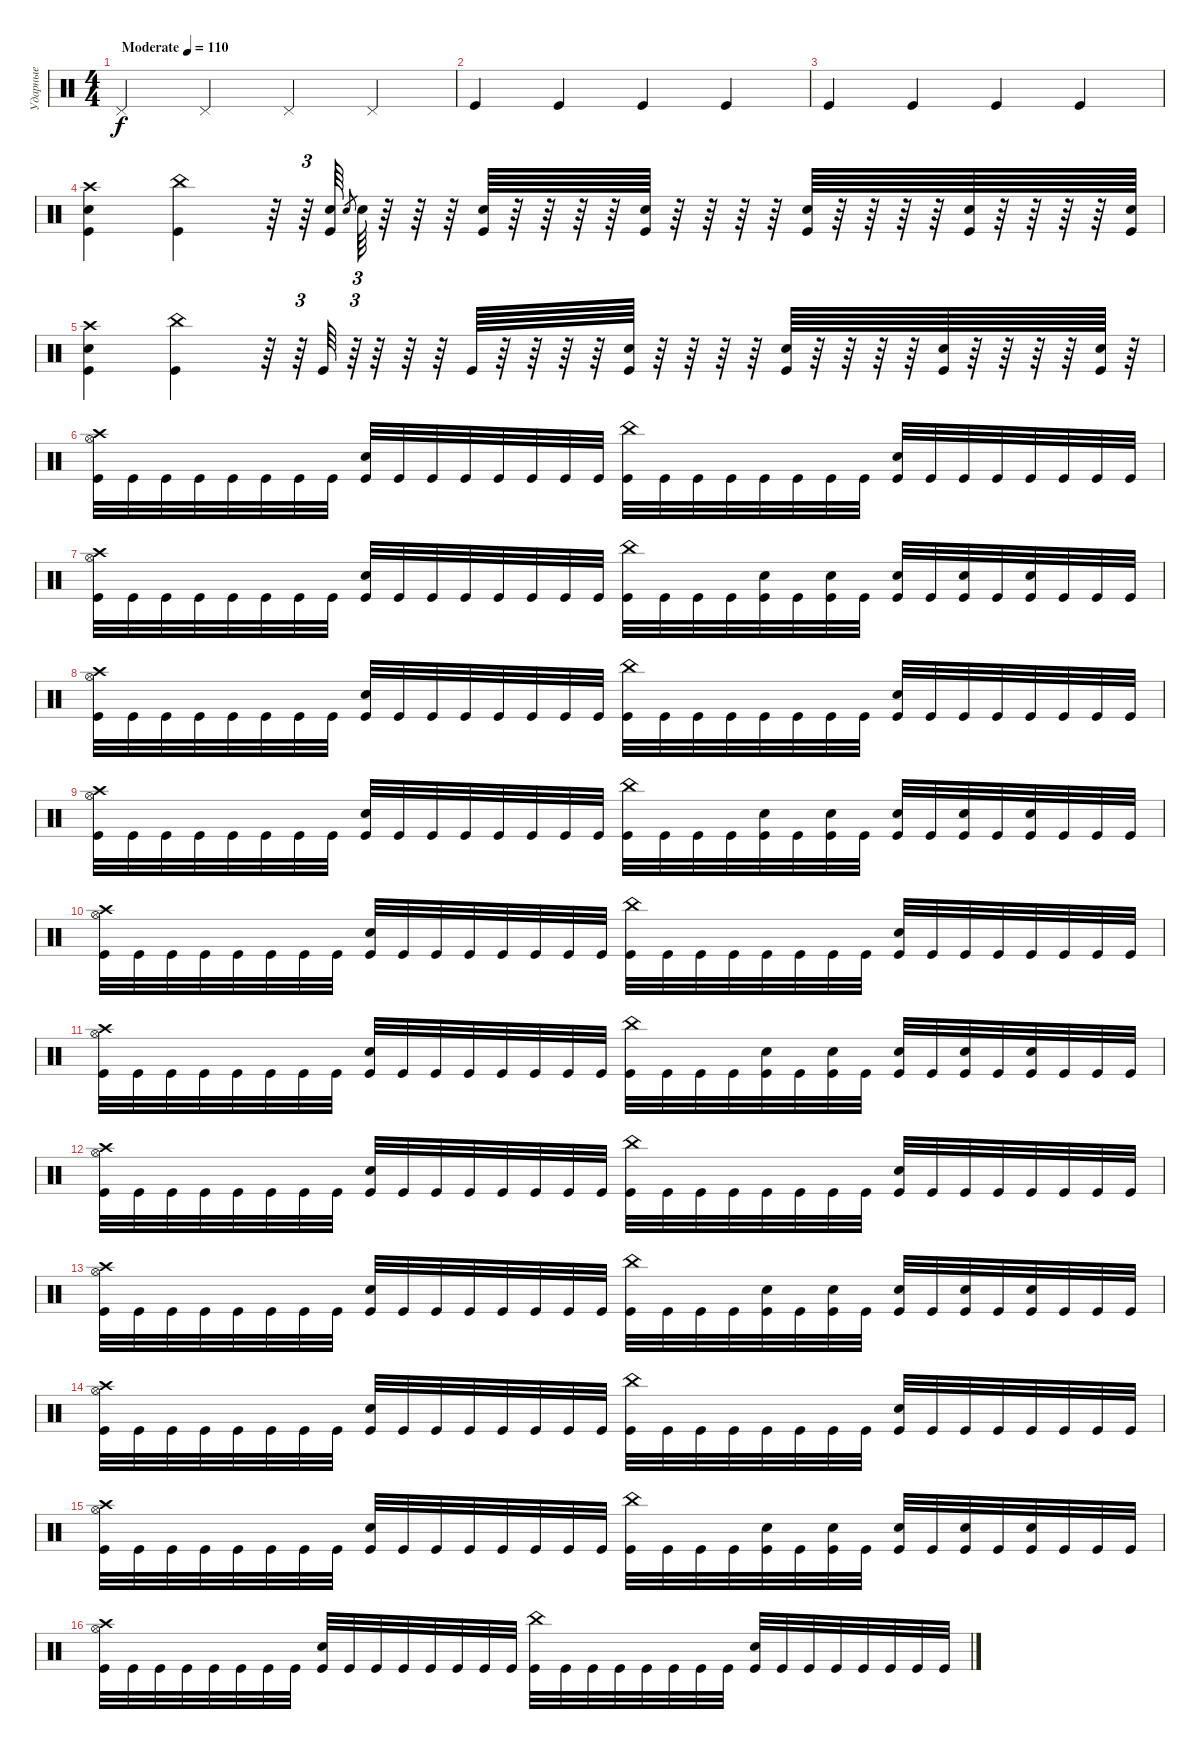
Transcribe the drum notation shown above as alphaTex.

\track ("Ударные" "Ударные") {instrument percussion}
\staff {score}
\articulation defaults
\ts (4 4)
\tempo (110 "Moderate")
\clef neutral
\ks c "Pedal Hi-Hat (hit)".4{dy f} "Pedal Hi-Hat (hit)".4 "Pedal Hi-Hat (hit)".4 "Pedal Hi-Hat (hit)".4
|
"Kick (hit)".4 "Kick (hit)".4 "Kick (hit)".4 "Kick (hit)".4 |
"Kick (hit)".4 "Kick (hit)".4 "Kick (hit)".4 "Kick (hit)".4 |
("Electric Snare (hit)" "Crash high (hit)" "Kick (hit)").4 ("China (hit)" "Kick (hit)").4 r.64 r.64{tu (3 2)} ("Electric Snare (hit)" "Kick (hit)").64 "Electric Snare (hit)".8{gr} "Electric Snare (hit)".64{tu (3 2)} r.64 r.64 r.64 ("Electric Snare (hit)" "Kick (hit)").64 r.64 r.64 r.64 r.64 ("Electric Snare (hit)" "Kick (hit)").64 r.64 r.64 r.64 r.64 ("Electric Snare (hit)" "Kick (hit)").64 r.64 r.64 r.64 r.64 ("Electric Snare (hit)" "Kick (hit)").64 r.64 r.64 r.64 r.64 ("Electric Snare (hit)" "Kick (hit)").64 |
("Electric Snare (hit)" "Crash high (hit)" "Kick (hit)").4 ("China (hit)" "Kick (hit)").4 r.64 r.64{tu (3 2)} "Kick (hit)".64 r.64{tu (3 2)} r.64 r.64 r.64 "Kick (hit)".64 r.64 r.64 r.64 r.64 ("Electric Snare (hit)" "Kick (hit)").64 r.64 r.64 r.64 r.64 ("Electric Snare (hit)" "Kick (hit)").64 r.64 r.64 r.64 r.64 ("Electric Snare (hit)" "Kick (hit)").64 r.64 r.64 r.64 r.64 ("Electric Snare (hit)" "Kick (hit)").64 r.64 |
("Hi-Hat (open)" "Crash high (hit)" "Kick (hit)").32 "Kick (hit)".32 "Kick (hit)".32 "Kick (hit)".32 "Kick (hit)".32 "Kick (hit)".32 "Kick (hit)".32 "Kick (hit)".32 ("Electric Snare (hit)" "Kick (hit)").32 "Kick (hit)".32 "Kick (hit)".32 "Kick (hit)".32 "Kick (hit)".32 "Kick (hit)".32 "Kick (hit)".32 "Kick (hit)".32 ("China (hit)" "Kick (hit)").32 "Kick (hit)".32 "Kick (hit)".32 "Kick (hit)".32 "Kick (hit)".32 "Kick (hit)".32 "Kick (hit)".32 "Kick (hit)".32 ("Electric Snare (hit)" "Kick (hit)").32 "Kick (hit)".32 "Kick (hit)".32 "Kick (hit)".32 "Kick (hit)".32 "Kick (hit)".32 "Kick (hit)".32 "Kick (hit)".32 |
("Hi-Hat (open)" "Crash high (hit)" "Kick (hit)").32 "Kick (hit)".32 "Kick (hit)".32 "Kick (hit)".32 "Kick (hit)".32 "Kick (hit)".32 "Kick (hit)".32 "Kick (hit)".32 ("Electric Snare (hit)" "Kick (hit)").32 "Kick (hit)".32 "Kick (hit)".32 "Kick (hit)".32 "Kick (hit)".32 "Kick (hit)".32 "Kick (hit)".32 "Kick (hit)".32 ("China (hit)" "Kick (hit)").32 "Kick (hit)".32 "Kick (hit)".32 "Kick (hit)".32 ("Electric Snare (hit)" "Kick (hit)").32 "Kick (hit)".32 ("Electric Snare (hit)" "Kick (hit)").32 "Kick (hit)".32 ("Electric Snare (hit)" "Kick (hit)").32 "Kick (hit)".32 ("Electric Snare (hit)" "Kick (hit)").32 "Kick (hit)".32 ("Electric Snare (hit)" "Kick (hit)").32 "Kick (hit)".32 "Kick (hit)".32 "Kick (hit)".32 |
("Hi-Hat (open)" "Crash high (hit)" "Kick (hit)").32 "Kick (hit)".32 "Kick (hit)".32 "Kick (hit)".32 "Kick (hit)".32 "Kick (hit)".32 "Kick (hit)".32 "Kick (hit)".32 ("Electric Snare (hit)" "Kick (hit)").32 "Kick (hit)".32 "Kick (hit)".32 "Kick (hit)".32 "Kick (hit)".32 "Kick (hit)".32 "Kick (hit)".32 "Kick (hit)".32 ("China (hit)" "Kick (hit)").32 "Kick (hit)".32 "Kick (hit)".32 "Kick (hit)".32 "Kick (hit)".32 "Kick (hit)".32 "Kick (hit)".32 "Kick (hit)".32 ("Electric Snare (hit)" "Kick (hit)").32 "Kick (hit)".32 "Kick (hit)".32 "Kick (hit)".32 "Kick (hit)".32 "Kick (hit)".32 "Kick (hit)".32 "Kick (hit)".32 |
("Hi-Hat (open)" "Crash high (hit)" "Kick (hit)").32 "Kick (hit)".32 "Kick (hit)".32 "Kick (hit)".32 "Kick (hit)".32 "Kick (hit)".32 "Kick (hit)".32 "Kick (hit)".32 ("Electric Snare (hit)" "Kick (hit)").32 "Kick (hit)".32 "Kick (hit)".32 "Kick (hit)".32 "Kick (hit)".32 "Kick (hit)".32 "Kick (hit)".32 "Kick (hit)".32 ("China (hit)" "Kick (hit)").32 "Kick (hit)".32 "Kick (hit)".32 "Kick (hit)".32 ("Electric Snare (hit)" "Kick (hit)").32 "Kick (hit)".32 ("Electric Snare (hit)" "Kick (hit)").32 "Kick (hit)".32 ("Electric Snare (hit)" "Kick (hit)").32 "Kick (hit)".32 ("Electric Snare (hit)" "Kick (hit)").32 "Kick (hit)".32 ("Electric Snare (hit)" "Kick (hit)").32 "Kick (hit)".32 "Kick (hit)".32 "Kick (hit)".32 |
("Hi-Hat (open)" "Crash high (hit)" "Kick (hit)").32 "Kick (hit)".32 "Kick (hit)".32 "Kick (hit)".32 "Kick (hit)".32 "Kick (hit)".32 "Kick (hit)".32 "Kick (hit)".32 ("Electric Snare (hit)" "Kick (hit)").32 "Kick (hit)".32 "Kick (hit)".32 "Kick (hit)".32 "Kick (hit)".32 "Kick (hit)".32 "Kick (hit)".32 "Kick (hit)".32 ("China (hit)" "Kick (hit)").32 "Kick (hit)".32 "Kick (hit)".32 "Kick (hit)".32 "Kick (hit)".32 "Kick (hit)".32 "Kick (hit)".32 "Kick (hit)".32 ("Electric Snare (hit)" "Kick (hit)").32 "Kick (hit)".32 "Kick (hit)".32 "Kick (hit)".32 "Kick (hit)".32 "Kick (hit)".32 "Kick (hit)".32 "Kick (hit)".32 |
("Hi-Hat (open)" "Crash high (hit)" "Kick (hit)").32 "Kick (hit)".32 "Kick (hit)".32 "Kick (hit)".32 "Kick (hit)".32 "Kick (hit)".32 "Kick (hit)".32 "Kick (hit)".32 ("Electric Snare (hit)" "Kick (hit)").32 "Kick (hit)".32 "Kick (hit)".32 "Kick (hit)".32 "Kick (hit)".32 "Kick (hit)".32 "Kick (hit)".32 "Kick (hit)".32 ("China (hit)" "Kick (hit)").32 "Kick (hit)".32 "Kick (hit)".32 "Kick (hit)".32 ("Electric Snare (hit)" "Kick (hit)").32 "Kick (hit)".32 ("Electric Snare (hit)" "Kick (hit)").32 "Kick (hit)".32 ("Electric Snare (hit)" "Kick (hit)").32 "Kick (hit)".32 ("Electric Snare (hit)" "Kick (hit)").32 "Kick (hit)".32 ("Electric Snare (hit)" "Kick (hit)").32 "Kick (hit)".32 "Kick (hit)".32 "Kick (hit)".32 |
("Hi-Hat (open)" "Crash high (hit)" "Kick (hit)").32 "Kick (hit)".32 "Kick (hit)".32 "Kick (hit)".32 "Kick (hit)".32 "Kick (hit)".32 "Kick (hit)".32 "Kick (hit)".32 ("Electric Snare (hit)" "Kick (hit)").32 "Kick (hit)".32 "Kick (hit)".32 "Kick (hit)".32 "Kick (hit)".32 "Kick (hit)".32 "Kick (hit)".32 "Kick (hit)".32 ("China (hit)" "Kick (hit)").32 "Kick (hit)".32 "Kick (hit)".32 "Kick (hit)".32 "Kick (hit)".32 "Kick (hit)".32 "Kick (hit)".32 "Kick (hit)".32 ("Electric Snare (hit)" "Kick (hit)").32 "Kick (hit)".32 "Kick (hit)".32 "Kick (hit)".32 "Kick (hit)".32 "Kick (hit)".32 "Kick (hit)".32 "Kick (hit)".32 |
("Hi-Hat (open)" "Crash high (hit)" "Kick (hit)").32 "Kick (hit)".32 "Kick (hit)".32 "Kick (hit)".32 "Kick (hit)".32 "Kick (hit)".32 "Kick (hit)".32 "Kick (hit)".32 ("Electric Snare (hit)" "Kick (hit)").32 "Kick (hit)".32 "Kick (hit)".32 "Kick (hit)".32 "Kick (hit)".32 "Kick (hit)".32 "Kick (hit)".32 "Kick (hit)".32 ("China (hit)" "Kick (hit)").32 "Kick (hit)".32 "Kick (hit)".32 "Kick (hit)".32 ("Electric Snare (hit)" "Kick (hit)").32 "Kick (hit)".32 ("Electric Snare (hit)" "Kick (hit)").32 "Kick (hit)".32 ("Electric Snare (hit)" "Kick (hit)").32 "Kick (hit)".32 ("Electric Snare (hit)" "Kick (hit)").32 "Kick (hit)".32 ("Electric Snare (hit)" "Kick (hit)").32 "Kick (hit)".32 "Kick (hit)".32 "Kick (hit)".32 |
("Hi-Hat (open)" "Crash high (hit)" "Kick (hit)").32 "Kick (hit)".32 "Kick (hit)".32 "Kick (hit)".32 "Kick (hit)".32 "Kick (hit)".32 "Kick (hit)".32 "Kick (hit)".32 ("Electric Snare (hit)" "Kick (hit)").32 "Kick (hit)".32 "Kick (hit)".32 "Kick (hit)".32 "Kick (hit)".32 "Kick (hit)".32 "Kick (hit)".32 "Kick (hit)".32 ("China (hit)" "Kick (hit)").32 "Kick (hit)".32 "Kick (hit)".32 "Kick (hit)".32 "Kick (hit)".32 "Kick (hit)".32 "Kick (hit)".32 "Kick (hit)".32 ("Electric Snare (hit)" "Kick (hit)").32 "Kick (hit)".32 "Kick (hit)".32 "Kick (hit)".32 "Kick (hit)".32 "Kick (hit)".32 "Kick (hit)".32 "Kick (hit)".32 |
("Hi-Hat (open)" "Crash high (hit)" "Kick (hit)").32 "Kick (hit)".32 "Kick (hit)".32 "Kick (hit)".32 "Kick (hit)".32 "Kick (hit)".32 "Kick (hit)".32 "Kick (hit)".32 ("Electric Snare (hit)" "Kick (hit)").32 "Kick (hit)".32 "Kick (hit)".32 "Kick (hit)".32 "Kick (hit)".32 "Kick (hit)".32 "Kick (hit)".32 "Kick (hit)".32 ("China (hit)" "Kick (hit)").32 "Kick (hit)".32 "Kick (hit)".32 "Kick (hit)".32 ("Electric Snare (hit)" "Kick (hit)").32 "Kick (hit)".32 ("Electric Snare (hit)" "Kick (hit)").32 "Kick (hit)".32 ("Electric Snare (hit)" "Kick (hit)").32 "Kick (hit)".32 ("Electric Snare (hit)" "Kick (hit)").32 "Kick (hit)".32 ("Electric Snare (hit)" "Kick (hit)").32 "Kick (hit)".32 "Kick (hit)".32 "Kick (hit)".32 |
("Hi-Hat (open)" "Crash high (hit)" "Kick (hit)").32 "Kick (hit)".32 "Kick (hit)".32 "Kick (hit)".32 "Kick (hit)".32 "Kick (hit)".32 "Kick (hit)".32 "Kick (hit)".32 ("Electric Snare (hit)" "Kick (hit)").32 "Kick (hit)".32 "Kick (hit)".32 "Kick (hit)".32 "Kick (hit)".32 "Kick (hit)".32 "Kick (hit)".32 "Kick (hit)".32 ("China (hit)" "Kick (hit)").32 "Kick (hit)".32 "Kick (hit)".32 "Kick (hit)".32 "Kick (hit)".32 "Kick (hit)".32 "Kick (hit)".32 "Kick (hit)".32 ("Electric Snare (hit)" "Kick (hit)").32 "Kick (hit)".32 "Kick (hit)".32 "Kick (hit)".32 "Kick (hit)".32 "Kick (hit)".32 "Kick (hit)".32 "Kick (hit)".32
